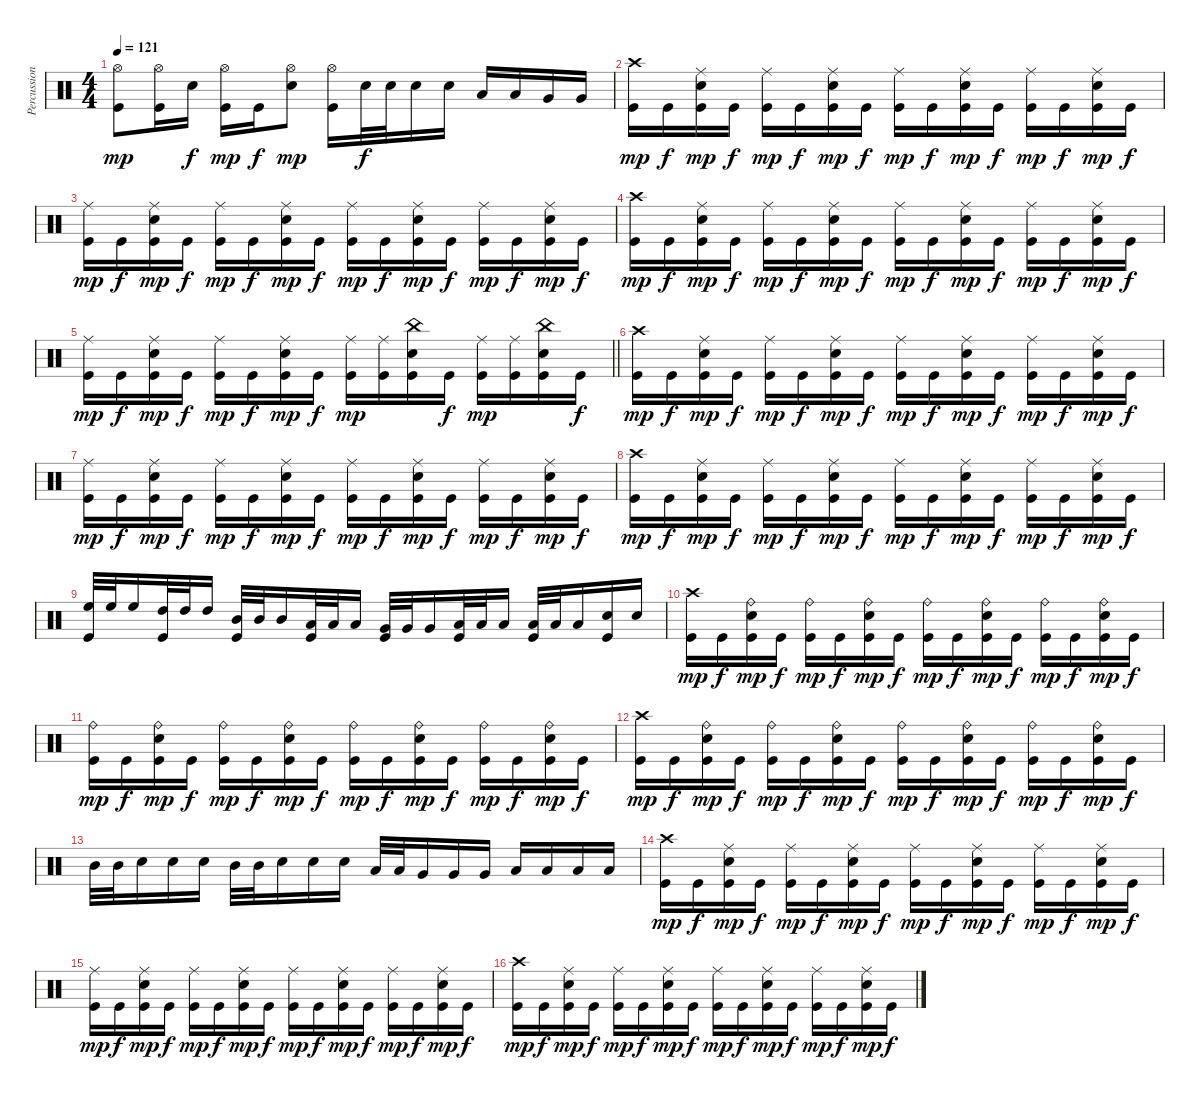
\track ("Percussion" "Percussion") {instrument percussion}
\staff {score}
\articulation defaults
\ts (4 4)
\tempo 121
\clef neutral
\ks c
("Hi-Hat (open)" "Kick (hit)").8{dy mp} ("Hi-Hat (open)" "Kick (hit)").16 "Electric Snare (hit)".16{dy f} ("Hi-Hat (open)" "Kick (hit)").16{dy mp} "Kick (hit)".16{dy f} ("Hi-Hat (open)" "Electric Snare (hit)").8{dy mp} ("Hi-Hat (open)" "Kick (hit)").16 "Electric Snare (hit)".32{dy f} "Electric Snare (hit)".32 "Electric Snare (hit)".16 "Electric Snare (hit)".16 "Low Tom (hit)".16 "Low Tom (hit)".16 "Very Low Tom (hit)".16 "Very Low Tom (hit)".16 |
("Crash high (hit)" "Kick (hit)").16{dy mp} "Kick (hit)".16{dy f} ("Ride (middle)" "Electric Snare (hit)" "Kick (hit)").16{dy mp} "Kick (hit)".16{dy f} ("Ride (middle)" "Kick (hit)").16{dy mp} "Kick (hit)".16{dy f} ("Ride (middle)" "Electric Snare (hit)" "Kick (hit)").16{dy mp} "Kick (hit)".16{dy f} ("Ride (middle)" "Kick (hit)").16{dy mp} "Kick (hit)".16{dy f} ("Ride (middle)" "Electric Snare (hit)" "Kick (hit)").16{dy mp} "Kick (hit)".16{dy f} ("Ride (middle)" "Kick (hit)").16{dy mp} "Kick (hit)".16{dy f} ("Ride (middle)" "Electric Snare (hit)" "Kick (hit)").16{dy mp} "Kick (hit)".16{dy f} |
("Ride (middle)" "Kick (hit)").16{dy mp} "Kick (hit)".16{dy f} ("Ride (middle)" "Electric Snare (hit)" "Kick (hit)").16{dy mp} "Kick (hit)".16{dy f} ("Ride (middle)" "Kick (hit)").16{dy mp} "Kick (hit)".16{dy f} ("Ride (middle)" "Electric Snare (hit)" "Kick (hit)").16{dy mp} "Kick (hit)".16{dy f} ("Ride (middle)" "Kick (hit)").16{dy mp} "Kick (hit)".16{dy f} ("Ride (middle)" "Electric Snare (hit)" "Kick (hit)").16{dy mp} "Kick (hit)".16{dy f} ("Ride (middle)" "Kick (hit)").16{dy mp} "Kick (hit)".16{dy f} ("Ride (middle)" "Electric Snare (hit)" "Kick (hit)").16{dy mp} "Kick (hit)".16{dy f} |
("Crash high (hit)" "Kick (hit)").16{dy mp} "Kick (hit)".16{dy f} ("Ride (middle)" "Electric Snare (hit)" "Kick (hit)").16{dy mp} "Kick (hit)".16{dy f} ("Ride (middle)" "Kick (hit)").16{dy mp} "Kick (hit)".16{dy f} ("Ride (middle)" "Electric Snare (hit)" "Kick (hit)").16{dy mp} "Kick (hit)".16{dy f} ("Ride (middle)" "Kick (hit)").16{dy mp} "Kick (hit)".16{dy f} ("Ride (middle)" "Electric Snare (hit)" "Kick (hit)").16{dy mp} "Kick (hit)".16{dy f} ("Ride (middle)" "Kick (hit)").16{dy mp} "Kick (hit)".16{dy f} ("Ride (middle)" "Electric Snare (hit)" "Kick (hit)").16{dy mp} "Kick (hit)".16{dy f} |
\barLineRight lightlight
("Ride (middle)" "Kick (hit)").16{dy mp} "Kick (hit)".16{dy f} ("Ride (middle)" "Electric Snare (hit)" "Kick (hit)").16{dy mp} "Kick (hit)".16{dy f} ("Ride (middle)" "Kick (hit)").16{dy mp} "Kick (hit)".16{dy f} ("Ride (middle)" "Electric Snare (hit)" "Kick (hit)").16{dy mp} "Kick (hit)".16{dy f} ("Ride (middle)" "Kick (hit)").16{dy mp} ("Ride (middle)" "Kick (hit)").16 ("China (hit)" "Electric Snare (hit)" "Kick (hit)").16 "Kick (hit)".16{dy f} ("Ride (middle)" "Kick (hit)").16{dy mp} ("Ride (middle)" "Kick (hit)").16 ("China (hit)" "Electric Snare (hit)" "Kick (hit)").16 "Kick (hit)".16{dy f} |
\section ("" "")
("Crash high (hit)" "Kick (hit)").16{dy mp} "Kick (hit)".16{dy f} ("Ride (middle)" "Electric Snare (hit)" "Kick (hit)").16{dy mp} "Kick (hit)".16{dy f} ("Ride (middle)" "Kick (hit)").16{dy mp} "Kick (hit)".16{dy f} ("Ride (middle)" "Electric Snare (hit)" "Kick (hit)").16{dy mp} "Kick (hit)".16{dy f} ("Ride (middle)" "Kick (hit)").16{dy mp} "Kick (hit)".16{dy f} ("Ride (middle)" "Electric Snare (hit)" "Kick (hit)").16{dy mp} "Kick (hit)".16{dy f} ("Ride (middle)" "Kick (hit)").16{dy mp} "Kick (hit)".16{dy f} ("Ride (middle)" "Electric Snare (hit)" "Kick (hit)").16{dy mp} "Kick (hit)".16{dy f} |
("Ride (middle)" "Kick (hit)").16{dy mp} "Kick (hit)".16{dy f} ("Ride (middle)" "Electric Snare (hit)" "Kick (hit)").16{dy mp} "Kick (hit)".16{dy f} ("Ride (middle)" "Kick (hit)").16{dy mp} "Kick (hit)".16{dy f} ("Ride (middle)" "Electric Snare (hit)" "Kick (hit)").16{dy mp} "Kick (hit)".16{dy f} ("Ride (middle)" "Kick (hit)").16{dy mp} "Kick (hit)".16{dy f} ("Ride (middle)" "Electric Snare (hit)" "Kick (hit)").16{dy mp} "Kick (hit)".16{dy f} ("Ride (middle)" "Kick (hit)").16{dy mp} "Kick (hit)".16{dy f} ("Ride (middle)" "Electric Snare (hit)" "Kick (hit)").16{dy mp} "Kick (hit)".16{dy f} |
("Crash high (hit)" "Kick (hit)").16{dy mp} "Kick (hit)".16{dy f} ("Ride (middle)" "Electric Snare (hit)" "Kick (hit)").16{dy mp} "Kick (hit)".16{dy f} ("Ride (middle)" "Kick (hit)").16{dy mp} "Kick (hit)".16{dy f} ("Ride (middle)" "Electric Snare (hit)" "Kick (hit)").16{dy mp} "Kick (hit)".16{dy f} ("Ride (middle)" "Kick (hit)").16{dy mp} "Kick (hit)".16{dy f} ("Ride (middle)" "Electric Snare (hit)" "Kick (hit)").16{dy mp} "Kick (hit)".16{dy f} ("Ride (middle)" "Kick (hit)").16{dy mp} "Kick (hit)".16{dy f} ("Ride (middle)" "Electric Snare (hit)" "Kick (hit)").16{dy mp} "Kick (hit)".16{dy f} |
("High Floor Tom (hit)" "Kick (hit)").32 "High Floor Tom (hit)".32 "High Floor Tom (hit)".16 ("High Tom (hit)" "Kick (hit)").32 "High Tom (hit)".32 "High Tom (hit)".16 ("Mid Tom (hit)" "Kick (hit)").32 "Mid Tom (hit)".32 "Mid Tom (hit)".16 ("Low Tom (hit)" "Kick (hit)").32 "Low Tom (hit)".32 "Low Tom (hit)".16 ("Very Low Tom (hit)" "Kick (hit)").32 "Very Low Tom (hit)".32 "Very Low Tom (hit)".16 ("Low Floor Tom (hit)" "Kick (hit)").32 "Low Floor Tom (hit)".32 "Low Floor Tom (hit)".16 ("Low Floor Tom (hit)" "Kick (hit)").32 "Low Floor Tom (hit)".32 "Low Floor Tom (hit)".16 ("Electric Snare (hit)" "Kick (hit)").16 "Electric Snare (hit)".16 |
("Crash high (hit)" "Kick (hit)").16{dy mp} "Kick (hit)".16{dy f} ("Ride (bell)" "Electric Snare (hit)" "Kick (hit)").16{dy mp} "Kick (hit)".16{dy f} ("Ride (bell)" "Kick (hit)").16{dy mp} "Kick (hit)".16{dy f} ("Ride (bell)" "Electric Snare (hit)" "Kick (hit)").16{dy mp} "Kick (hit)".16{dy f} ("Ride (bell)" "Kick (hit)").16{dy mp} "Kick (hit)".16{dy f} ("Ride (bell)" "Electric Snare (hit)" "Kick (hit)").16{dy mp} "Kick (hit)".16{dy f} ("Ride (bell)" "Kick (hit)").16{dy mp} "Kick (hit)".16{dy f} ("Ride (bell)" "Electric Snare (hit)" "Kick (hit)").16{dy mp} "Kick (hit)".16{dy f} |
("Ride (bell)" "Kick (hit)").16{dy mp} "Kick (hit)".16{dy f} ("Ride (bell)" "Electric Snare (hit)" "Kick (hit)").16{dy mp} "Kick (hit)".16{dy f} ("Ride (bell)" "Kick (hit)").16{dy mp} "Kick (hit)".16{dy f} ("Ride (bell)" "Electric Snare (hit)" "Kick (hit)").16{dy mp} "Kick (hit)".16{dy f} ("Ride (bell)" "Kick (hit)").16{dy mp} "Kick (hit)".16{dy f} ("Ride (bell)" "Electric Snare (hit)" "Kick (hit)").16{dy mp} "Kick (hit)".16{dy f} ("Ride (bell)" "Kick (hit)").16{dy mp} "Kick (hit)".16{dy f} ("Ride (bell)" "Electric Snare (hit)" "Kick (hit)").16{dy mp} "Kick (hit)".16{dy f} |
("Crash high (hit)" "Kick (hit)").16{dy mp} "Kick (hit)".16{dy f} ("Ride (bell)" "Electric Snare (hit)" "Kick (hit)").16{dy mp} "Kick (hit)".16{dy f} ("Ride (bell)" "Kick (hit)").16{dy mp} "Kick (hit)".16{dy f} ("Ride (bell)" "Electric Snare (hit)" "Kick (hit)").16{dy mp} "Kick (hit)".16{dy f} ("Ride (bell)" "Kick (hit)").16{dy mp} "Kick (hit)".16{dy f} ("Ride (bell)" "Electric Snare (hit)" "Kick (hit)").16{dy mp} "Kick (hit)".16{dy f} ("Ride (bell)" "Kick (hit)").16{dy mp} "Kick (hit)".16{dy f} ("Ride (bell)" "Electric Snare (hit)" "Kick (hit)").16{dy mp} "Kick (hit)".16{dy f} |
"Mid Tom (hit)".32 "Mid Tom (hit)".32 "Electric Snare (hit)".16 "Electric Snare (hit)".16 "Electric Snare (hit)".16 "Mid Tom (hit)".32 "Mid Tom (hit)".32 "Electric Snare (hit)".16 "Electric Snare (hit)".16 "Electric Snare (hit)".16 "Low Tom (hit)".32 "Low Tom (hit)".32 "Very Low Tom (hit)".16 "Very Low Tom (hit)".16 "Very Low Tom (hit)".16 "Low Floor Tom (hit)".16 "Low Floor Tom (hit)".16 "Low Floor Tom (hit)".16 "Low Floor Tom (hit)".16 |
("Crash high (hit)" "Kick (hit)").16{dy mp} "Kick (hit)".16{dy f} ("Ride (middle)" "Electric Snare (hit)" "Kick (hit)").16{dy mp} "Kick (hit)".16{dy f} ("Ride (middle)" "Kick (hit)").16{dy mp} "Kick (hit)".16{dy f} ("Ride (middle)" "Electric Snare (hit)" "Kick (hit)").16{dy mp} "Kick (hit)".16{dy f} ("Ride (middle)" "Kick (hit)").16{dy mp} "Kick (hit)".16{dy f} ("Ride (middle)" "Electric Snare (hit)" "Kick (hit)").16{dy mp} "Kick (hit)".16{dy f} ("Ride (middle)" "Kick (hit)").16{dy mp} "Kick (hit)".16{dy f} ("Ride (middle)" "Electric Snare (hit)" "Kick (hit)").16{dy mp} "Kick (hit)".16{dy f} |
("Ride (middle)" "Kick (hit)").16{dy mp} "Kick (hit)".16{dy f} ("Ride (middle)" "Electric Snare (hit)" "Kick (hit)").16{dy mp} "Kick (hit)".16{dy f} ("Ride (middle)" "Kick (hit)").16{dy mp} "Kick (hit)".16{dy f} ("Ride (middle)" "Electric Snare (hit)" "Kick (hit)").16{dy mp} "Kick (hit)".16{dy f} ("Ride (middle)" "Kick (hit)").16{dy mp} "Kick (hit)".16{dy f} ("Ride (middle)" "Electric Snare (hit)" "Kick (hit)").16{dy mp} "Kick (hit)".16{dy f} ("Ride (middle)" "Kick (hit)").16{dy mp} "Kick (hit)".16{dy f} ("Ride (middle)" "Electric Snare (hit)" "Kick (hit)").16{dy mp} "Kick (hit)".16{dy f} |
("Crash high (hit)" "Kick (hit)").16{dy mp} "Kick (hit)".16{dy f} ("Ride (middle)" "Electric Snare (hit)" "Kick (hit)").16{dy mp} "Kick (hit)".16{dy f} ("Ride (middle)" "Kick (hit)").16{dy mp} "Kick (hit)".16{dy f} ("Ride (middle)" "Electric Snare (hit)" "Kick (hit)").16{dy mp} "Kick (hit)".16{dy f} ("Ride (middle)" "Kick (hit)").16{dy mp} "Kick (hit)".16{dy f} ("Ride (middle)" "Electric Snare (hit)" "Kick (hit)").16{dy mp} "Kick (hit)".16{dy f} ("Ride (middle)" "Kick (hit)").16{dy mp} "Kick (hit)".16{dy f} ("Ride (middle)" "Electric Snare (hit)" "Kick (hit)").16{dy mp} "Kick (hit)".16{dy f}
